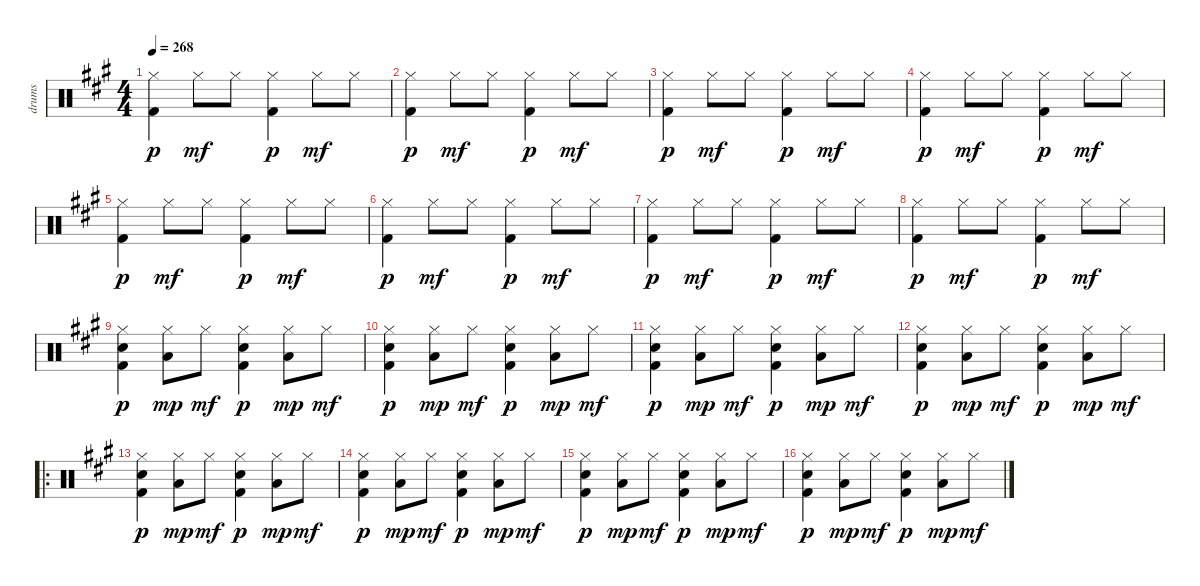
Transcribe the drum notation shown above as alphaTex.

\track ("drums" "drums") {instrument percussion}
\staff {score}
\articulation defaults
\ts (4 4)
\tempo 268
\clef neutral
\ks a
("Hi-Hat (closed)" "Kick (hit) 2").4{dy p} "Hi-Hat (closed)".8{dy mf} "Hi-Hat (closed)".8 ("Hi-Hat (closed)" "Kick (hit) 2").4{dy p} "Hi-Hat (closed)".8{dy mf} "Hi-Hat (closed)".8 |
("Hi-Hat (closed)" "Kick (hit) 2").4{dy p} "Hi-Hat (closed)".8{dy mf} "Hi-Hat (closed)".8 ("Hi-Hat (closed)" "Kick (hit) 2").4{dy p} "Hi-Hat (closed)".8{dy mf} "Hi-Hat (closed)".8 |
("Hi-Hat (closed)" "Kick (hit) 2").4{dy p} "Hi-Hat (closed)".8{dy mf} "Hi-Hat (closed)".8 ("Hi-Hat (closed)" "Kick (hit) 2").4{dy p} "Hi-Hat (closed)".8{dy mf} "Hi-Hat (closed)".8 |
("Hi-Hat (closed)" "Kick (hit) 2").4{dy p} "Hi-Hat (closed)".8{dy mf} "Hi-Hat (closed)".8 ("Hi-Hat (closed)" "Kick (hit) 2").4{dy p} "Hi-Hat (closed)".8{dy mf} "Hi-Hat (closed)".8 |
("Hi-Hat (closed)" "Kick (hit) 2").4{dy p} "Hi-Hat (closed)".8{dy mf} "Hi-Hat (closed)".8 ("Hi-Hat (closed)" "Kick (hit) 2").4{dy p} "Hi-Hat (closed)".8{dy mf} "Hi-Hat (closed)".8 |
("Hi-Hat (closed)" "Kick (hit) 2").4{dy p} "Hi-Hat (closed)".8{dy mf} "Hi-Hat (closed)".8 ("Hi-Hat (closed)" "Kick (hit) 2").4{dy p} "Hi-Hat (closed)".8{dy mf} "Hi-Hat (closed)".8 |
("Hi-Hat (closed)" "Kick (hit) 2").4{dy p} "Hi-Hat (closed)".8{dy mf} "Hi-Hat (closed)".8 ("Hi-Hat (closed)" "Kick (hit) 2").4{dy p} "Hi-Hat (closed)".8{dy mf} "Hi-Hat (closed)".8 |
("Hi-Hat (closed)" "Kick (hit) 2").4{dy p} "Hi-Hat (closed)".8{dy mf} "Hi-Hat (closed)".8 ("Hi-Hat (closed)" "Kick (hit) 2").4{dy p} "Hi-Hat (closed)".8{dy mf} "Hi-Hat (closed)".8 |
("Hi-Hat (closed)" "Kick (hit) 2" "Hand Clap (hit)").4{dy p} ("Hi-Hat (closed)" "Low Tom (hit)").8{dy mp} "Hi-Hat (closed)".8{dy mf} ("Hi-Hat (closed)" "Kick (hit) 2" "Hand Clap (hit)").4{dy p} ("Hi-Hat (closed)" "Low Tom (hit)").8{dy mp} "Hi-Hat (closed)".8{dy mf} |
("Hi-Hat (closed)" "Kick (hit) 2" "Hand Clap (hit)").4{dy p} ("Hi-Hat (closed)" "Low Tom (hit)").8{dy mp} "Hi-Hat (closed)".8{dy mf} ("Hi-Hat (closed)" "Kick (hit) 2" "Hand Clap (hit)").4{dy p} ("Hi-Hat (closed)" "Low Tom (hit)").8{dy mp} "Hi-Hat (closed)".8{dy mf} |
("Hi-Hat (closed)" "Kick (hit) 2" "Hand Clap (hit)").4{dy p} ("Hi-Hat (closed)" "Low Tom (hit)").8{dy mp} "Hi-Hat (closed)".8{dy mf} ("Hi-Hat (closed)" "Kick (hit) 2" "Hand Clap (hit)").4{dy p} ("Hi-Hat (closed)" "Low Tom (hit)").8{dy mp} "Hi-Hat (closed)".8{dy mf} |
("Hi-Hat (closed)" "Kick (hit) 2" "Hand Clap (hit)").4{dy p} ("Hi-Hat (closed)" "Low Tom (hit)").8{dy mp} "Hi-Hat (closed)".8{dy mf} ("Hi-Hat (closed)" "Kick (hit) 2" "Hand Clap (hit)").4{dy p} ("Hi-Hat (closed)" "Low Tom (hit)").8{dy mp} "Hi-Hat (closed)".8{dy mf} |
\ro
("Hi-Hat (closed)" "Kick (hit) 2" "Hand Clap (hit)").4{dy p} ("Hi-Hat (closed)" "Low Tom (hit)").8{dy mp} "Hi-Hat (closed)".8{dy mf} ("Hi-Hat (closed)" "Kick (hit) 2" "Hand Clap (hit)").4{dy p} ("Hi-Hat (closed)" "Low Tom (hit)").8{dy mp} "Hi-Hat (closed)".8{dy mf} |
("Hi-Hat (closed)" "Kick (hit) 2" "Hand Clap (hit)").4{dy p} ("Hi-Hat (closed)" "Low Tom (hit)").8{dy mp} "Hi-Hat (closed)".8{dy mf} ("Hi-Hat (closed)" "Kick (hit) 2" "Hand Clap (hit)").4{dy p} ("Hi-Hat (closed)" "Low Tom (hit)").8{dy mp} "Hi-Hat (closed)".8{dy mf} |
("Hi-Hat (closed)" "Kick (hit) 2" "Hand Clap (hit)").4{dy p} ("Hi-Hat (closed)" "Low Tom (hit)").8{dy mp} "Hi-Hat (closed)".8{dy mf} ("Hi-Hat (closed)" "Kick (hit) 2" "Hand Clap (hit)").4{dy p} ("Hi-Hat (closed)" "Low Tom (hit)").8{dy mp} "Hi-Hat (closed)".8{dy mf} |
("Hi-Hat (closed)" "Kick (hit) 2" "Hand Clap (hit)").4{dy p} ("Hi-Hat (closed)" "Low Tom (hit)").8{dy mp} "Hi-Hat (closed)".8{dy mf} ("Hi-Hat (closed)" "Kick (hit) 2" "Hand Clap (hit)").4{dy p} ("Hi-Hat (closed)" "Low Tom (hit)").8{dy mp} "Hi-Hat (closed)".8{dy mf}
